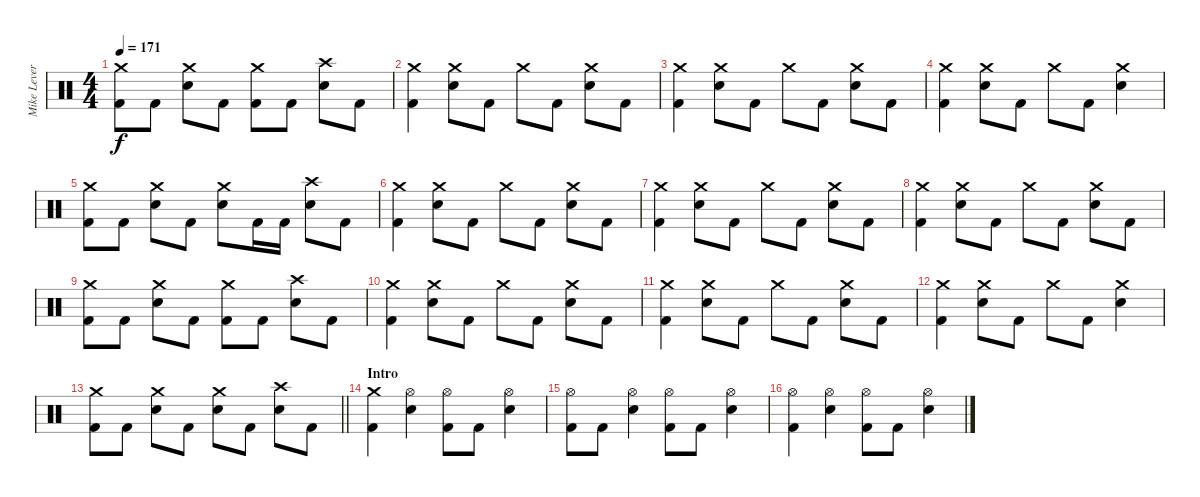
\track ("Mike Leverence - Drums" "Mike Lever") {instrument percussion}
\staff {score}
\articulation defaults
\ts (4 4)
\tempo 171
\clef neutral
\ks c
("Crash medium (hit)" "Kick (hit) 2").8{dy f} "Kick (hit) 2".8 ("Crash medium (hit)" "Electric Snare (hit)").8 "Kick (hit) 2".8 ("Crash medium (hit)" "Kick (hit) 2").8 "Kick (hit) 2".8 ("Crash high (hit)" "Electric Snare (hit)").8 "Kick (hit) 2".8 |
("Crash medium (hit)" "Kick (hit) 2").4 ("Crash medium (hit)" "Electric Snare (hit)").8 "Kick (hit) 2".8 "Crash medium (hit)".8 "Kick (hit) 2".8 ("Crash medium (hit)" "Electric Snare (hit)").8 "Kick (hit) 2".8 |
("Crash medium (hit)" "Kick (hit) 2").4 ("Crash medium (hit)" "Electric Snare (hit)").8 "Kick (hit) 2".8 "Crash medium (hit)".8 "Kick (hit) 2".8 ("Crash medium (hit)" "Electric Snare (hit)").8 "Kick (hit) 2".8 |
("Crash medium (hit)" "Kick (hit) 2").4 ("Crash medium (hit)" "Electric Snare (hit)").8 "Kick (hit) 2".8 "Crash medium (hit)".8 "Kick (hit) 2".8 ("Crash medium (hit)" "Electric Snare (hit)").4 |
("Crash medium (hit)" "Kick (hit) 2").8 "Kick (hit) 2".8 ("Crash medium (hit)" "Electric Snare (hit)").8 "Kick (hit) 2".8 ("Crash medium (hit)" "Electric Snare (hit)").8 "Kick (hit) 2".16 "Kick (hit) 2".16 ("Crash high (hit)" "Electric Snare (hit)").8 "Kick (hit) 2".8 |
("Crash medium (hit)" "Kick (hit) 2").4 ("Crash medium (hit)" "Electric Snare (hit)").8 "Kick (hit) 2".8 "Crash medium (hit)".8 "Kick (hit) 2".8 ("Crash medium (hit)" "Electric Snare (hit)").8 "Kick (hit) 2".8 |
("Crash medium (hit)" "Kick (hit) 2").4 ("Crash medium (hit)" "Electric Snare (hit)").8 "Kick (hit) 2".8 "Crash medium (hit)".8 "Kick (hit) 2".8 ("Crash medium (hit)" "Electric Snare (hit)").8 "Kick (hit) 2".8 |
("Crash medium (hit)" "Kick (hit) 2").4 ("Crash medium (hit)" "Electric Snare (hit)").8 "Kick (hit) 2".8 "Crash medium (hit)".8 "Kick (hit) 2".8 ("Crash medium (hit)" "Electric Snare (hit)").8 "Kick (hit) 2".8 |
("Crash medium (hit)" "Kick (hit) 2").8 "Kick (hit) 2".8 ("Crash medium (hit)" "Electric Snare (hit)").8 "Kick (hit) 2".8 ("Crash medium (hit)" "Kick (hit) 2").8 "Kick (hit) 2".8 ("Crash high (hit)" "Electric Snare (hit)").8 "Kick (hit) 2".8 |
("Crash medium (hit)" "Kick (hit) 2").4 ("Crash medium (hit)" "Electric Snare (hit)").8 "Kick (hit) 2".8 "Crash medium (hit)".8 "Kick (hit) 2".8 ("Crash medium (hit)" "Electric Snare (hit)").8 "Kick (hit) 2".8 |
("Crash medium (hit)" "Kick (hit) 2").4 ("Crash medium (hit)" "Electric Snare (hit)").8 "Kick (hit) 2".8 "Crash medium (hit)".8 "Kick (hit) 2".8 ("Crash medium (hit)" "Electric Snare (hit)").8 "Kick (hit) 2".8 |
("Crash medium (hit)" "Kick (hit) 2").4 ("Crash medium (hit)" "Electric Snare (hit)").8 "Kick (hit) 2".8 "Crash medium (hit)".8 "Kick (hit) 2".8 ("Crash medium (hit)" "Electric Snare (hit)").4 |
\barLineRight lightlight
("Crash medium (hit)" "Kick (hit) 2").8 "Kick (hit) 2".8 ("Crash medium (hit)" "Electric Snare (hit)").8 "Kick (hit) 2".8 ("Crash medium (hit)" "Electric Snare (hit)").8 "Kick (hit) 2".8 ("Crash high (hit)" "Electric Snare (hit)").8 "Kick (hit) 2".8 |
\section ("" "Intro")
("Crash medium (hit)" "Kick (hit) 2").4 ("Hi-Hat (open)" "Electric Snare (hit)").4 ("Hi-Hat (open)" "Kick (hit) 2").8 "Kick (hit) 2".8 ("Hi-Hat (open)" "Electric Snare (hit)").4 |
("Hi-Hat (open)" "Kick (hit) 2").8 "Kick (hit) 2".8 ("Hi-Hat (open)" "Electric Snare (hit)").4 ("Hi-Hat (open)" "Kick (hit) 2").8 "Kick (hit) 2".8 ("Hi-Hat (open)" "Electric Snare (hit)").4 |
("Hi-Hat (open)" "Kick (hit) 2").4 ("Hi-Hat (open)" "Electric Snare (hit)").4 ("Hi-Hat (open)" "Kick (hit) 2").8 "Kick (hit) 2".8 ("Hi-Hat (open)" "Electric Snare (hit)").4
